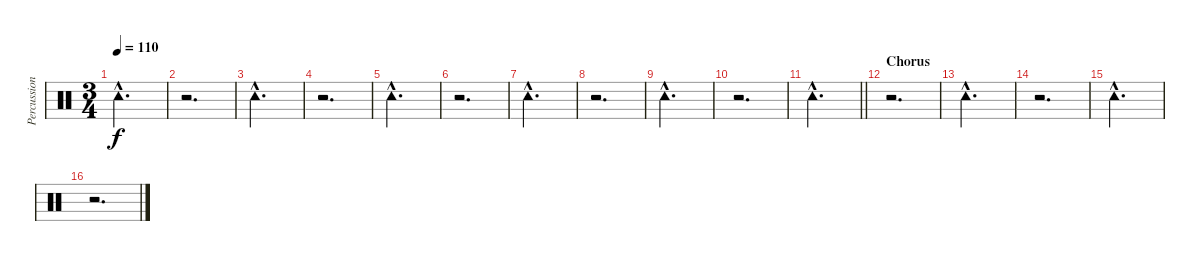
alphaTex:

\track ("Percussion" "Percussion") {instrument percussion}
\staff {score}
\articulation defaults
\ts (3 4)
\tempo 110
\clef neutral
\ks c "Tambourine (hit)"{hac}.2{d dy f}
|
r.2{d} |
"Tambourine (hit)"{hac}.2{d} |
r.2{d} |
"Tambourine (hit)"{hac}.2{d} |
r.2{d} |
"Tambourine (hit)"{hac}.2{d} |
r.2{d} |
"Tambourine (hit)"{hac}.2{d} |
r.2{d} |
\barLineRight lightlight "Tambourine (hit)"{hac}.2{d}
|
\section ("" "Chorus")
r.2{d} |
"Tambourine (hit)"{hac}.2{d} |
r.2{d} |
"Tambourine (hit)"{hac}.2{d} |
r.2{d}
